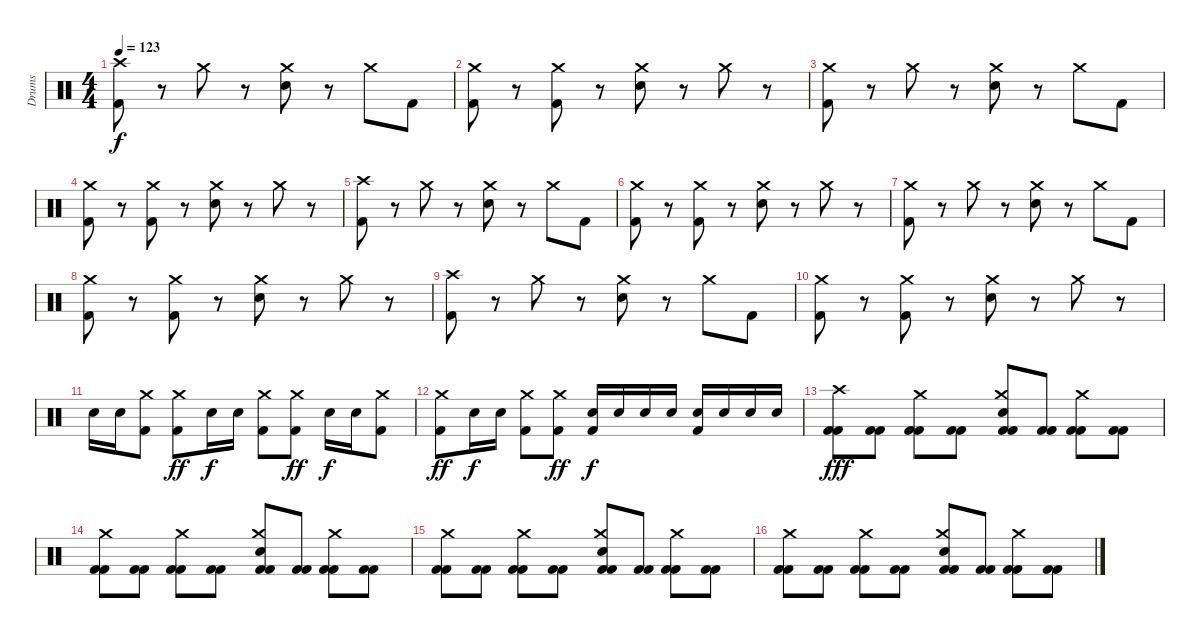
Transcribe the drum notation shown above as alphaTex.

\track ("Drums" "Drums") {instrument percussion}
\staff {score}
\articulation defaults
\ts (4 4)
\tempo 123
\clef neutral
\ks c
("Crash high (hit)" "Kick (hit) 2").8{dy f} r.8 "Crash medium (hit)".8 r.8 ("Crash medium (hit)" "Electric Snare (hit)").8 r.8 "Crash medium (hit)".8 "Kick (hit) 2".8 |
("Crash medium (hit)" "Kick (hit) 2").8 r.8 ("Crash medium (hit)" "Kick (hit) 2").8 r.8 ("Crash medium (hit)" "Electric Snare (hit)").8 r.8 "Crash medium (hit)".8 r.8 |
("Crash medium (hit)" "Kick (hit) 2").8 r.8 "Crash medium (hit)".8 r.8 ("Crash medium (hit)" "Electric Snare (hit)").8 r.8 "Crash medium (hit)".8 "Kick (hit) 2".8 |
("Crash medium (hit)" "Kick (hit) 2").8 r.8 ("Crash medium (hit)" "Kick (hit) 2").8 r.8 ("Crash medium (hit)" "Electric Snare (hit)").8 r.8 "Crash medium (hit)".8 r.8 |
("Crash high (hit)" "Kick (hit) 2").8 r.8 "Crash medium (hit)".8 r.8 ("Crash medium (hit)" "Electric Snare (hit)").8 r.8 "Crash medium (hit)".8 "Kick (hit) 2".8 |
("Crash medium (hit)" "Kick (hit) 2").8 r.8 ("Crash medium (hit)" "Kick (hit) 2").8 r.8 ("Crash medium (hit)" "Electric Snare (hit)").8 r.8 "Crash medium (hit)".8 r.8 |
("Crash medium (hit)" "Kick (hit) 2").8 r.8 "Crash medium (hit)".8 r.8 ("Crash medium (hit)" "Electric Snare (hit)").8 r.8 "Crash medium (hit)".8 "Kick (hit) 2".8 |
("Crash medium (hit)" "Kick (hit) 2").8 r.8 ("Crash medium (hit)" "Kick (hit) 2").8 r.8 ("Crash medium (hit)" "Electric Snare (hit)").8 r.8 "Crash medium (hit)".8 r.8 |
("Crash high (hit)" "Kick (hit) 2").8 r.8 "Crash medium (hit)".8 r.8 ("Crash medium (hit)" "Electric Snare (hit)").8 r.8 "Crash medium (hit)".8 "Kick (hit) 2".8 |
("Crash medium (hit)" "Kick (hit) 2").8 r.8 ("Crash medium (hit)" "Kick (hit) 2").8 r.8 ("Crash medium (hit)" "Electric Snare (hit)").8 r.8 "Crash medium (hit)".8 r.8 |
"Electric Snare (hit)".16 "Electric Snare (hit)".16 ("Crash medium (hit)" "Kick (hit) 2").8 ("Crash medium (hit)" "Kick (hit) 2").8{dy ff} "Electric Snare (hit)".16{dy f} "Electric Snare (hit)".16 ("Crash medium (hit)" "Kick (hit) 2").8 ("Crash medium (hit)" "Kick (hit) 2").8{dy ff} "Electric Snare (hit)".16{dy f} "Electric Snare (hit)".16 ("Crash medium (hit)" "Kick (hit) 2").8 |
("Crash medium (hit)" "Kick (hit) 2").8{dy ff} "Electric Snare (hit)".16{dy f} "Electric Snare (hit)".16 ("Crash medium (hit)" "Kick (hit) 2").8 ("Crash medium (hit)" "Kick (hit) 2").8{dy ff} ("Electric Snare (hit)" "Kick (hit) 2").16{dy f} "Electric Snare (hit)".16 "Electric Snare (hit)".16 "Electric Snare (hit)".16 ("Electric Snare (hit)" "Kick (hit) 2").16 "Electric Snare (hit)".16 "Electric Snare (hit)".16 "Electric Snare (hit)".16 |
("Crash high (hit)" "Kick (hit) 2" "Kick (hit) 2").8{dy fff} ("Kick (hit) 2" "Kick (hit) 2").8 ("Crash medium (hit)" "Kick (hit) 2" "Kick (hit) 2").8 ("Kick (hit) 2" "Kick (hit) 2").8 ("Crash medium (hit)" "Electric Snare (hit)" "Kick (hit) 2" "Kick (hit) 2").8 ("Kick (hit) 2" "Kick (hit) 2").8 ("Crash medium (hit)" "Kick (hit) 2" "Kick (hit) 2").8 ("Kick (hit) 2" "Kick (hit) 2").8 |
("Crash medium (hit)" "Kick (hit) 2" "Kick (hit) 2").8 ("Kick (hit) 2" "Kick (hit) 2").8 ("Crash medium (hit)" "Kick (hit) 2" "Kick (hit) 2").8 ("Kick (hit) 2" "Kick (hit) 2").8 ("Crash medium (hit)" "Electric Snare (hit)" "Kick (hit) 2" "Kick (hit) 2").8 ("Kick (hit) 2" "Kick (hit) 2").8 ("Crash medium (hit)" "Kick (hit) 2" "Kick (hit) 2").8 ("Kick (hit) 2" "Kick (hit) 2").8 |
("Crash medium (hit)" "Kick (hit) 2" "Kick (hit) 2").8 ("Kick (hit) 2" "Kick (hit) 2").8 ("Crash medium (hit)" "Kick (hit) 2" "Kick (hit) 2").8 ("Kick (hit) 2" "Kick (hit) 2").8 ("Crash medium (hit)" "Electric Snare (hit)" "Kick (hit) 2" "Kick (hit) 2").8 ("Kick (hit) 2" "Kick (hit) 2").8 ("Crash medium (hit)" "Kick (hit) 2" "Kick (hit) 2").8 ("Kick (hit) 2" "Kick (hit) 2").8 |
("Crash medium (hit)" "Kick (hit) 2" "Kick (hit) 2").8 ("Kick (hit) 2" "Kick (hit) 2").8 ("Crash medium (hit)" "Kick (hit) 2" "Kick (hit) 2").8 ("Kick (hit) 2" "Kick (hit) 2").8 ("Crash medium (hit)" "Electric Snare (hit)" "Kick (hit) 2" "Kick (hit) 2").8 ("Kick (hit) 2" "Kick (hit) 2").8 ("Crash medium (hit)" "Kick (hit) 2" "Kick (hit) 2").8 ("Kick (hit) 2" "Kick (hit) 2").8
